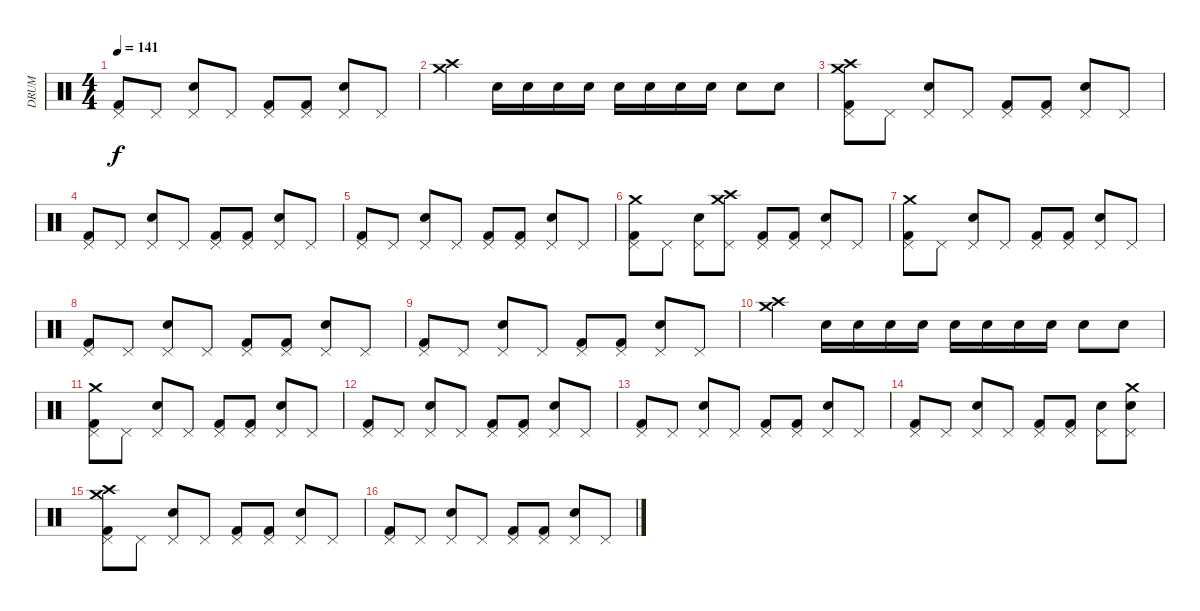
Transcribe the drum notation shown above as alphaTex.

\track ("DRUM" "DRUM") {instrument percussion}
\staff {score}
\articulation defaults
\ts (4 4)
\tempo 141
\clef neutral
\ks c
("Pedal Hi-Hat (hit)" "Kick (hit) 2").8{dy f} "Pedal Hi-Hat (hit)".8 ("Snare (hit) 2" "Pedal Hi-Hat (hit)").8 "Pedal Hi-Hat (hit)".8 ("Pedal Hi-Hat (hit)" "Kick (hit) 2").8 ("Pedal Hi-Hat (hit)" "Kick (hit) 2").8 ("Snare (hit) 2" "Pedal Hi-Hat (hit)").8 "Pedal Hi-Hat (hit)".8 |
("Crash high (hit)" "Crash medium (hit)").4 "Electric Snare (hit)".16 "Electric Snare (hit)".16 "Electric Snare (hit)".16 "Electric Snare (hit)".16 "Electric Snare (hit)".16 "Electric Snare (hit)".16 "Electric Snare (hit)".16 "Electric Snare (hit)".16 "Electric Snare (hit)".8 "Snare (hit) 2".8 |
("Crash high (hit)" "Crash medium (hit)" "Pedal Hi-Hat (hit)" "Kick (hit) 2").8 "Pedal Hi-Hat (hit)".8 ("Snare (hit) 2" "Pedal Hi-Hat (hit)").8 "Pedal Hi-Hat (hit)".8 ("Pedal Hi-Hat (hit)" "Kick (hit) 2").8 ("Pedal Hi-Hat (hit)" "Kick (hit) 2").8 ("Snare (hit) 2" "Pedal Hi-Hat (hit)").8 "Pedal Hi-Hat (hit)".8 |
("Pedal Hi-Hat (hit)" "Kick (hit) 2").8 "Pedal Hi-Hat (hit)".8 ("Snare (hit) 2" "Pedal Hi-Hat (hit)").8 "Pedal Hi-Hat (hit)".8 ("Pedal Hi-Hat (hit)" "Kick (hit) 2").8 ("Pedal Hi-Hat (hit)" "Kick (hit) 2").8 ("Snare (hit) 2" "Pedal Hi-Hat (hit)").8 "Pedal Hi-Hat (hit)".8 |
("Pedal Hi-Hat (hit)" "Kick (hit) 2").8 "Pedal Hi-Hat (hit)".8 ("Snare (hit) 2" "Pedal Hi-Hat (hit)").8 "Pedal Hi-Hat (hit)".8 ("Pedal Hi-Hat (hit)" "Kick (hit) 2").8 ("Pedal Hi-Hat (hit)" "Kick (hit) 2").8 ("Snare (hit) 2" "Pedal Hi-Hat (hit)").8 "Pedal Hi-Hat (hit)".8 |
("Crash medium (hit)" "Pedal Hi-Hat (hit)" "Kick (hit) 2").8 "Pedal Hi-Hat (hit)".8 ("Snare (hit) 2" "Pedal Hi-Hat (hit)").8 ("Crash medium (hit)" "Crash high (hit)" "Pedal Hi-Hat (hit)").8 ("Pedal Hi-Hat (hit)" "Kick (hit) 2").8 ("Pedal Hi-Hat (hit)" "Kick (hit) 2").8 ("Snare (hit) 2" "Pedal Hi-Hat (hit)").8 "Pedal Hi-Hat (hit)".8 |
("Crash medium (hit)" "Pedal Hi-Hat (hit)" "Kick (hit) 2").8 "Pedal Hi-Hat (hit)".8 ("Snare (hit) 2" "Pedal Hi-Hat (hit)").8 "Pedal Hi-Hat (hit)".8 ("Pedal Hi-Hat (hit)" "Kick (hit) 2").8 ("Pedal Hi-Hat (hit)" "Kick (hit) 2").8 ("Snare (hit) 2" "Pedal Hi-Hat (hit)").8 "Pedal Hi-Hat (hit)".8 |
("Pedal Hi-Hat (hit)" "Kick (hit) 2").8 "Pedal Hi-Hat (hit)".8 ("Snare (hit) 2" "Pedal Hi-Hat (hit)").8 "Pedal Hi-Hat (hit)".8 ("Pedal Hi-Hat (hit)" "Kick (hit) 2").8 ("Pedal Hi-Hat (hit)" "Kick (hit) 2").8 ("Snare (hit) 2" "Pedal Hi-Hat (hit)").8 "Pedal Hi-Hat (hit)".8 |
("Pedal Hi-Hat (hit)" "Kick (hit) 2").8 "Pedal Hi-Hat (hit)".8 ("Snare (hit) 2" "Pedal Hi-Hat (hit)").8 "Pedal Hi-Hat (hit)".8 ("Pedal Hi-Hat (hit)" "Kick (hit) 2").8 ("Pedal Hi-Hat (hit)" "Kick (hit) 2").8 ("Snare (hit) 2" "Pedal Hi-Hat (hit)").8 "Pedal Hi-Hat (hit)".8 |
("Crash high (hit)" "Crash medium (hit)").4 "Electric Snare (hit)".16 "Electric Snare (hit)".16 "Electric Snare (hit)".16 "Electric Snare (hit)".16 "Electric Snare (hit)".16 "Electric Snare (hit)".16 "Electric Snare (hit)".16 "Electric Snare (hit)".16 "Electric Snare (hit)".8 "Snare (hit) 2".8 |
("Crash medium (hit)" "Pedal Hi-Hat (hit)" "Kick (hit) 2").8 "Pedal Hi-Hat (hit)".8 ("Pedal Hi-Hat (hit)" "Snare (hit) 2").8 "Pedal Hi-Hat (hit)".8 ("Pedal Hi-Hat (hit)" "Kick (hit) 2").8 ("Pedal Hi-Hat (hit)" "Kick (hit) 2").8 ("Pedal Hi-Hat (hit)" "Snare (hit) 2").8 "Pedal Hi-Hat (hit)".8 |
("Pedal Hi-Hat (hit)" "Kick (hit) 2").8 "Pedal Hi-Hat (hit)".8 ("Pedal Hi-Hat (hit)" "Snare (hit) 2").8 "Pedal Hi-Hat (hit)".8 ("Pedal Hi-Hat (hit)" "Kick (hit) 2").8 ("Pedal Hi-Hat (hit)" "Kick (hit) 2").8 ("Pedal Hi-Hat (hit)" "Snare (hit) 2").8 "Pedal Hi-Hat (hit)".8 |
("Pedal Hi-Hat (hit)" "Kick (hit) 2").8 "Pedal Hi-Hat (hit)".8 ("Pedal Hi-Hat (hit)" "Snare (hit) 2").8 "Pedal Hi-Hat (hit)".8 ("Pedal Hi-Hat (hit)" "Kick (hit) 2").8 ("Pedal Hi-Hat (hit)" "Kick (hit) 2").8 ("Pedal Hi-Hat (hit)" "Snare (hit) 2").8 "Pedal Hi-Hat (hit)".8 |
("Pedal Hi-Hat (hit)" "Kick (hit) 2").8 "Pedal Hi-Hat (hit)".8 ("Pedal Hi-Hat (hit)" "Snare (hit) 2").8 "Pedal Hi-Hat (hit)".8 ("Pedal Hi-Hat (hit)" "Kick (hit) 2").8 ("Pedal Hi-Hat (hit)" "Kick (hit) 2").8 ("Pedal Hi-Hat (hit)" "Snare (hit) 2").8 ("Crash medium (hit)" "Pedal Hi-Hat (hit)" "Snare (hit) 2").8 |
("Crash high (hit)" "Crash medium (hit)" "Pedal Hi-Hat (hit)" "Kick (hit) 2").8 "Pedal Hi-Hat (hit)".8 ("Pedal Hi-Hat (hit)" "Snare (hit) 2").8 "Pedal Hi-Hat (hit)".8 ("Pedal Hi-Hat (hit)" "Kick (hit) 2").8 ("Pedal Hi-Hat (hit)" "Kick (hit) 2").8 ("Pedal Hi-Hat (hit)" "Snare (hit) 2").8 "Pedal Hi-Hat (hit)".8 |
("Pedal Hi-Hat (hit)" "Kick (hit) 2").8 "Pedal Hi-Hat (hit)".8 ("Pedal Hi-Hat (hit)" "Snare (hit) 2").8 "Pedal Hi-Hat (hit)".8 ("Pedal Hi-Hat (hit)" "Kick (hit) 2").8 ("Pedal Hi-Hat (hit)" "Kick (hit) 2").8 ("Pedal Hi-Hat (hit)" "Snare (hit) 2").8 "Pedal Hi-Hat (hit)".8
